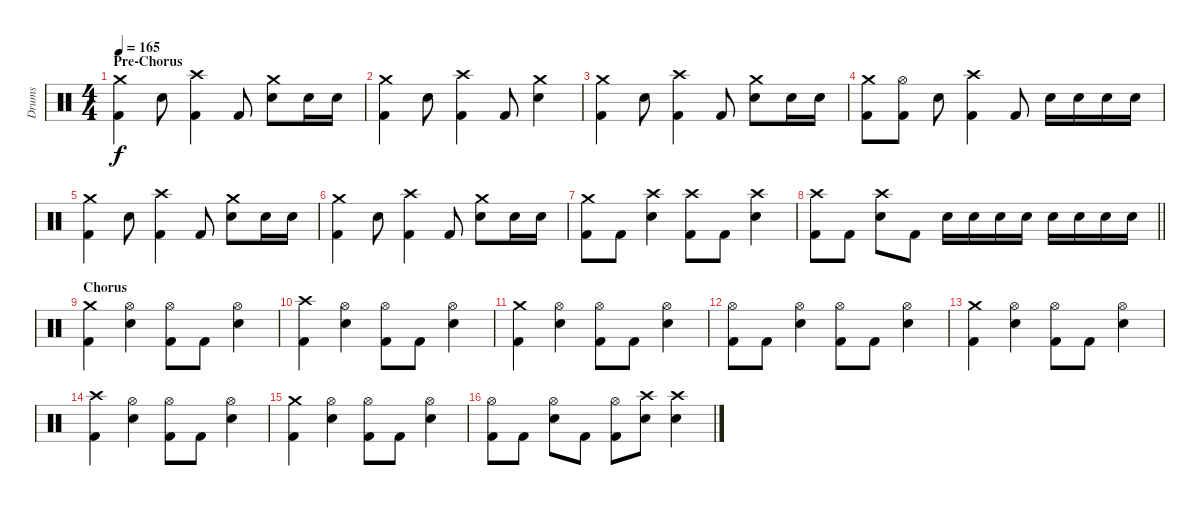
\track ("Drums" "Drums") {instrument percussion}
\staff {score}
\articulation defaults
\ts (4 4)
\section ("" "Pre-Chorus")
\tempo 165
\clef neutral
\ks c
("Crash medium (hit)" "Kick (hit) 2").4{dy f} "Electric Snare (hit)".8 ("Crash high (hit)" "Kick (hit) 2").4 "Kick (hit) 2".8 ("Crash medium (hit)" "Electric Snare (hit)").8 "Electric Snare (hit)".16 "Electric Snare (hit)".16 |
("Crash medium (hit)" "Kick (hit) 2").4 "Electric Snare (hit)".8 ("Crash high (hit)" "Kick (hit) 2").4 "Kick (hit) 2".8 ("Crash medium (hit)" "Electric Snare (hit)").4 |
("Crash medium (hit)" "Kick (hit) 2").4 "Electric Snare (hit)".8 ("Crash high (hit)" "Kick (hit) 2").4 "Kick (hit) 2".8 ("Crash medium (hit)" "Electric Snare (hit)").8 "Electric Snare (hit)".16 "Electric Snare (hit)".16 |
("Crash medium (hit)" "Kick (hit) 2").8 ("Hi-Hat (open)" "Kick (hit) 2").8 "Electric Snare (hit)".8 ("Crash high (hit)" "Kick (hit) 2").4 "Kick (hit) 2".8 "Electric Snare (hit)".16 "Electric Snare (hit)".16 "Electric Snare (hit)".16 "Electric Snare (hit)".16 |
("Crash medium (hit)" "Kick (hit) 2").4 "Electric Snare (hit)".8 ("Crash high (hit)" "Kick (hit) 2").4 "Kick (hit) 2".8 ("Crash medium (hit)" "Electric Snare (hit)").8 "Electric Snare (hit)".16 "Electric Snare (hit)".16 |
("Crash medium (hit)" "Kick (hit) 2").4 "Electric Snare (hit)".8 ("Crash high (hit)" "Kick (hit) 2").4 "Kick (hit) 2".8 ("Crash medium (hit)" "Electric Snare (hit)").8 "Electric Snare (hit)".16 "Electric Snare (hit)".16 |
("Crash medium (hit)" "Kick (hit) 2").8 "Kick (hit) 2".8 ("Crash high (hit)" "Electric Snare (hit)").4 ("Crash high (hit)" "Kick (hit) 2").8 "Kick (hit) 2".8 ("Crash high (hit)" "Electric Snare (hit)").4 |
\barLineRight lightlight
("Crash high (hit)" "Kick (hit) 2").8 "Kick (hit) 2".8 ("Crash high (hit)" "Electric Snare (hit)").8 "Kick (hit) 2".8 "Electric Snare (hit)".16 "Electric Snare (hit)".16 "Electric Snare (hit)".16 "Electric Snare (hit)".16 "Electric Snare (hit)".16 "Electric Snare (hit)".16 "Electric Snare (hit)".16 "Electric Snare (hit)".16 |
\section ("" "Chorus")
("Crash medium (hit)" "Kick (hit) 2").4 ("Hi-Hat (open)" "Electric Snare (hit)").4 ("Hi-Hat (open)" "Kick (hit) 2").8 "Kick (hit) 2".8 ("Hi-Hat (open)" "Electric Snare (hit)").4 |
("Crash high (hit)" "Kick (hit) 2").4 ("Hi-Hat (open)" "Electric Snare (hit)").4 ("Hi-Hat (open)" "Kick (hit) 2").8 "Kick (hit) 2".8 ("Hi-Hat (open)" "Electric Snare (hit)").4 |
("Crash medium (hit)" "Kick (hit) 2").4 ("Hi-Hat (open)" "Electric Snare (hit)").4 ("Hi-Hat (open)" "Kick (hit) 2").8 "Kick (hit) 2".8 ("Hi-Hat (open)" "Electric Snare (hit)").4 |
("Hi-Hat (open)" "Kick (hit) 2").8 "Kick (hit) 2".8 ("Hi-Hat (open)" "Electric Snare (hit)").4 ("Hi-Hat (open)" "Kick (hit) 2").8 "Kick (hit) 2".8 ("Hi-Hat (open)" "Electric Snare (hit)").4 |
("Crash medium (hit)" "Kick (hit) 2").4 ("Hi-Hat (open)" "Electric Snare (hit)").4 ("Hi-Hat (open)" "Kick (hit) 2").8 "Kick (hit) 2".8 ("Hi-Hat (open)" "Electric Snare (hit)").4 |
("Crash high (hit)" "Kick (hit) 2").4 ("Hi-Hat (open)" "Electric Snare (hit)").4 ("Hi-Hat (open)" "Kick (hit) 2").8 "Kick (hit) 2".8 ("Hi-Hat (open)" "Electric Snare (hit)").4 |
("Crash medium (hit)" "Kick (hit) 2").4 ("Hi-Hat (open)" "Electric Snare (hit)").4 ("Hi-Hat (open)" "Kick (hit) 2").8 "Kick (hit) 2".8 ("Hi-Hat (open)" "Electric Snare (hit)").4 |
("Hi-Hat (open)" "Kick (hit) 2").8 "Kick (hit) 2".8 ("Hi-Hat (open)" "Electric Snare (hit)").8 "Kick (hit) 2".8 ("Hi-Hat (open)" "Kick (hit) 2").8 ("Crash high (hit)" "Electric Snare (hit)").8 ("Crash high (hit)" "Electric Snare (hit)").4
